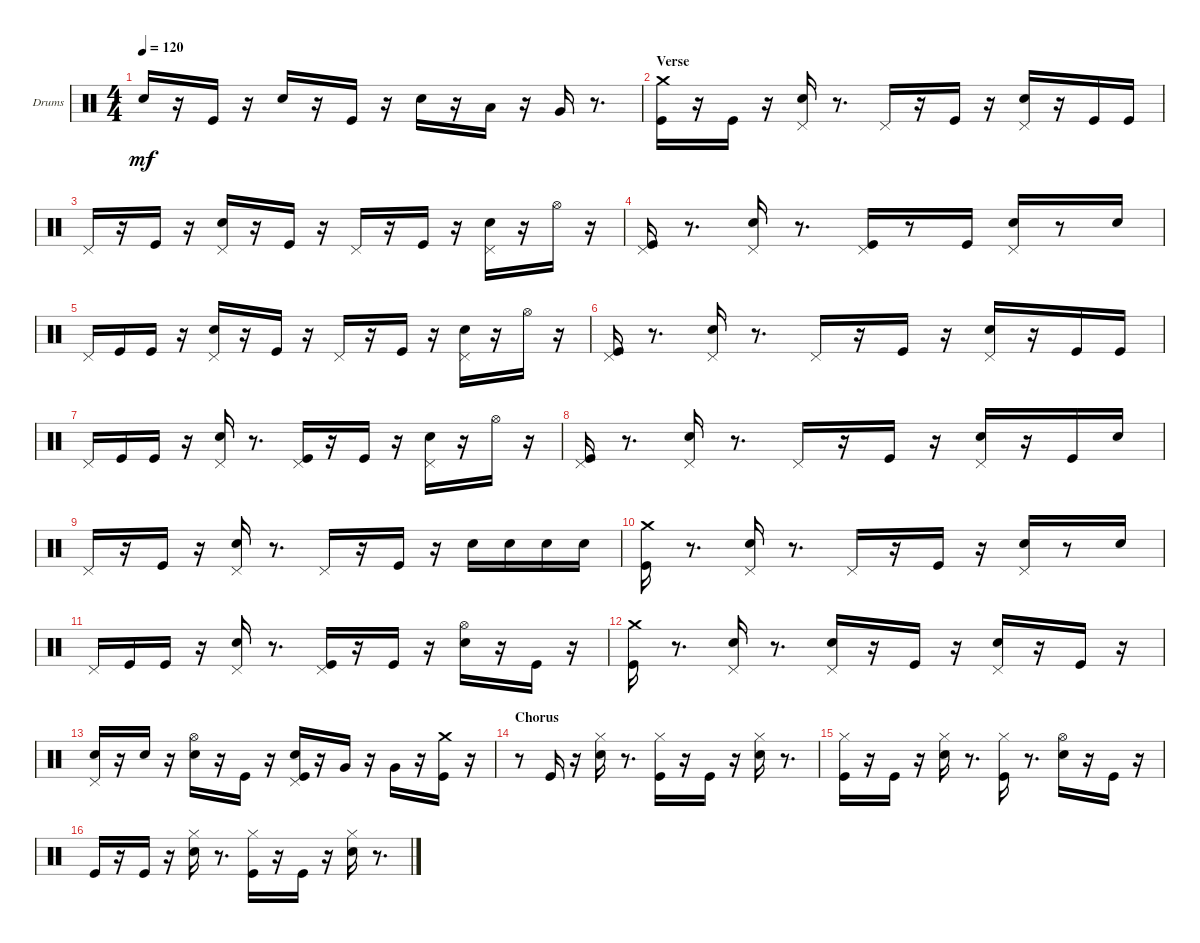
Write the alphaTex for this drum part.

\bracketExtendMode groupsimilarinstruments
\firstSystemTrackNameOrientation horizontal
\otherSystemsTrackNameOrientation horizontal
\track ("Drumkit" "Drums") {instrument percussion}
\staff {score}
\articulation defaults
\ts (4 4)
\tempo 120
\clef neutral
\ks aminor "Snare (hit) 2".16{dy mf}
r.16 "Kick (hit)".16 r.16 "Snare (hit) 2".16 r.16 "Kick (hit)".16 r.16 "Snare (hit) 2".16 r.16 "Low Tom (hit)".16 r.16 "Very Low Tom (hit)".16 r.8{d} |
\section ("" "Verse")
("Kick (hit)" "Crash medium (hit)").16 r.16 "Kick (hit)".16 r.16 ("Snare (hit) 2" "Pedal Hi-Hat (hit)").16 r.8{d} "Pedal Hi-Hat (hit)".16 r.16 "Kick (hit)".16 r.16 ("Snare (hit) 2" "Pedal Hi-Hat (hit)").16 r.16 "Kick (hit)".16 "Kick (hit)".16 |
"Pedal Hi-Hat (hit)".16 r.16 "Kick (hit)".16 r.16 ("Snare (hit) 2" "Pedal Hi-Hat (hit)").16 r.16 "Kick (hit)".16 r.16 "Pedal Hi-Hat (hit)".16 r.16 "Kick (hit)".16 r.16 ("Snare (hit) 2" "Pedal Hi-Hat (hit)").16 r.16 "Hi-Hat (open)".16 r.16 |
("Kick (hit)" "Pedal Hi-Hat (hit)").16 r.8{d} ("Snare (hit) 2" "Pedal Hi-Hat (hit)").16 r.8{d} ("Kick (hit)" "Pedal Hi-Hat (hit)").16 r.8 "Kick (hit)".16 ("Snare (hit) 2" "Pedal Hi-Hat (hit)").16 r.8 "Snare (hit) 2".16 |
"Pedal Hi-Hat (hit)".16 "Kick (hit)".16 "Kick (hit)".16 r.16 ("Snare (hit) 2" "Pedal Hi-Hat (hit)").16 r.16 "Kick (hit)".16 r.16 "Pedal Hi-Hat (hit)".16 r.16 "Kick (hit)".16 r.16 ("Snare (hit) 2" "Pedal Hi-Hat (hit)").16 r.16 "Hi-Hat (open)".16 r.16 |
("Kick (hit)" "Pedal Hi-Hat (hit)").16 r.8{d} ("Snare (hit) 2" "Pedal Hi-Hat (hit)").16 r.8{d} "Pedal Hi-Hat (hit)".16 r.16 "Kick (hit)".16 r.16 ("Snare (hit) 2" "Pedal Hi-Hat (hit)").16 r.16 "Kick (hit)".16 "Kick (hit)".16 |
"Pedal Hi-Hat (hit)".16 "Kick (hit)".16 "Kick (hit)".16 r.16 ("Snare (hit) 2" "Pedal Hi-Hat (hit)").16 r.8{d} ("Kick (hit)" "Pedal Hi-Hat (hit)").16 r.16 "Kick (hit)".16 r.16 ("Snare (hit) 2" "Pedal Hi-Hat (hit)").16 r.16 "Hi-Hat (open)".16 r.16 |
("Kick (hit)" "Pedal Hi-Hat (hit)").16 r.8{d} ("Snare (hit) 2" "Pedal Hi-Hat (hit)").16 r.8{d} "Pedal Hi-Hat (hit)".16 r.16 "Kick (hit)".16 r.16 ("Snare (hit) 2" "Pedal Hi-Hat (hit)").16 r.16 "Kick (hit)".16 "Snare (hit) 2".16 |
"Pedal Hi-Hat (hit)".16 r.16 "Kick (hit)".16 r.16 ("Snare (hit) 2" "Pedal Hi-Hat (hit)").16 r.8{d} "Pedal Hi-Hat (hit)".16 r.16 "Kick (hit)".16 r.16 "Snare (hit) 2".16 "Snare (hit) 2".16 "Snare (hit) 2".16 "Snare (hit) 2".16 |
("Kick (hit)" "Crash medium (hit)").16 r.8{d} ("Snare (hit) 2" "Pedal Hi-Hat (hit)").16 r.8{d} "Pedal Hi-Hat (hit)".16 r.16 "Kick (hit)".16 r.16 ("Snare (hit) 2" "Pedal Hi-Hat (hit)").16 r.8 "Snare (hit) 2".16 |
"Pedal Hi-Hat (hit)".16 "Kick (hit)".16 "Kick (hit)".16 r.16 ("Snare (hit) 2" "Pedal Hi-Hat (hit)").16 r.8{d} ("Kick (hit)" "Pedal Hi-Hat (hit)").16 r.16 "Kick (hit)".16 r.16 ("Snare (hit) 2" "Hi-Hat (open)").16 r.16 "Kick (hit)".16 r.16 |
("Kick (hit)" "Crash medium (hit)").16 r.8{d} ("Snare (hit) 2" "Pedal Hi-Hat (hit)").16 r.8{d} ("Snare (hit) 2" "Pedal Hi-Hat (hit)").16 r.16 "Kick (hit)".16 r.16 ("Snare (hit) 2" "Pedal Hi-Hat (hit)").16 r.16 "Kick (hit)".16 r.16 |
("Snare (hit) 2" "Pedal Hi-Hat (hit)").16 r.16 "Snare (hit) 2".16 r.16 ("Snare (hit) 2" "Hi-Hat (open)").16 r.16 "Kick (hit)".16 r.16 ("Kick (hit)" "Snare (hit) 2" "Pedal Hi-Hat (hit)").16 r.16 "Very Low Tom (hit)".16 r.16 "Very Low Tom (hit)".16 r.16 ("Kick (hit)" "Crash medium (hit)").16 r.16 |
\section ("" "Chorus")
r.8 "Kick (hit)".16 r.16 ("Snare (hit) 2" "Hi-Hat (closed)").16 r.8{d} ("Kick (hit)" "Hi-Hat (closed)").16 r.16 "Kick (hit)".16 r.16 ("Snare (hit) 2" "Hi-Hat (closed)").16 r.8{d} |
("Kick (hit)" "Hi-Hat (closed)").16 r.16 "Kick (hit)".16 r.16 ("Snare (hit) 2" "Hi-Hat (closed)").16 r.8{d} ("Kick (hit)" "Hi-Hat (closed)").16 r.8{d} ("Snare (hit) 2" "Hi-Hat (open)").16 r.16 "Kick (hit)".16 r.16 |
"Kick (hit)".16 r.16 "Kick (hit)".16 r.16 ("Snare (hit) 2" "Hi-Hat (closed)").16 r.8{d} ("Kick (hit)" "Hi-Hat (closed)").16 r.16 "Kick (hit)".16 r.16 ("Snare (hit) 2" "Hi-Hat (closed)").16 r.8{d}
